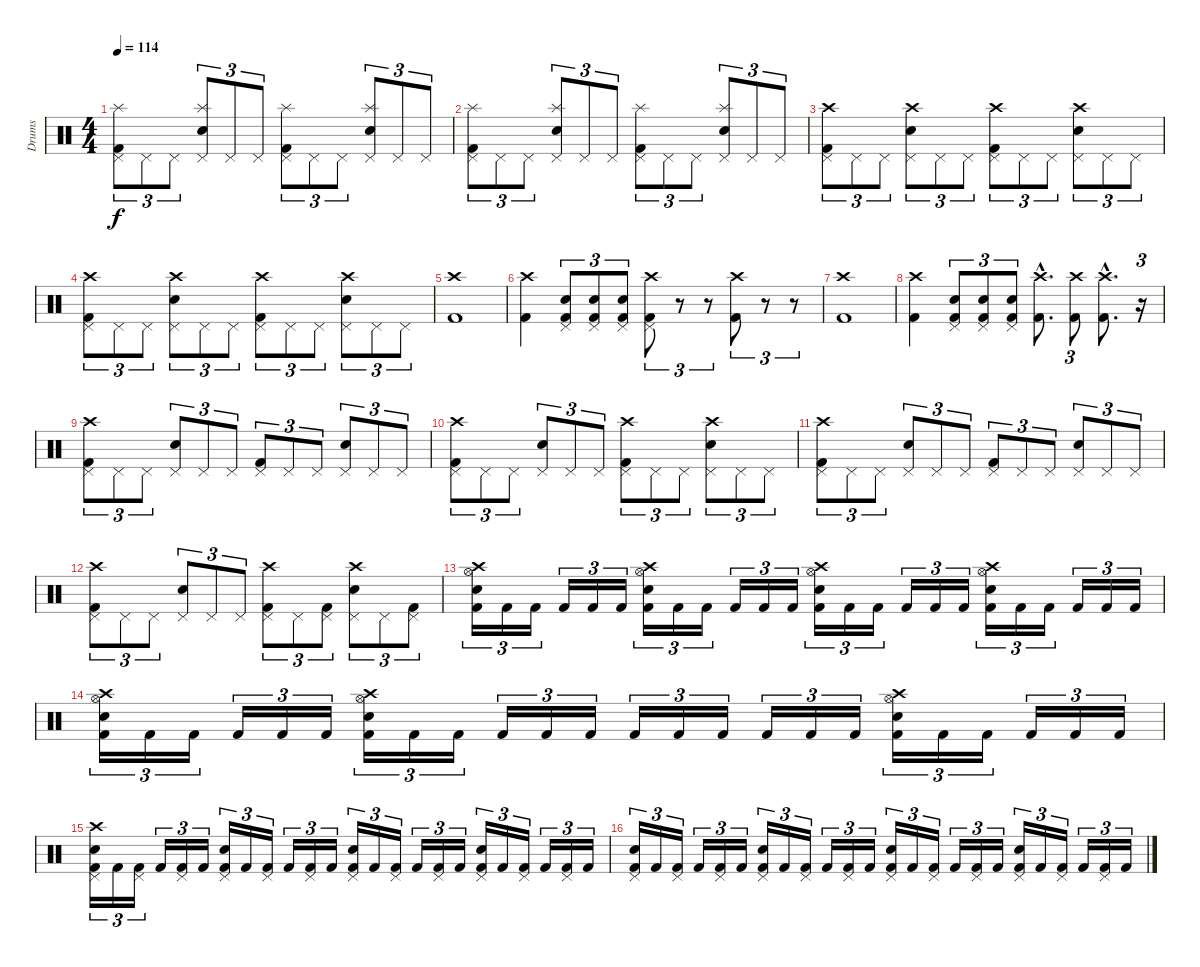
\track ("Drums" "Drums") {instrument percussion}
\staff {score}
\articulation defaults
\ts (4 4)
\tempo 114
\clef neutral
\ks c
("Pedal Hi-Hat (hit)" "Kick (hit) 2" "Splash (hit)").8{tu (3 2) dy f} "Pedal Hi-Hat (hit)".8{tu (3 2)} "Pedal Hi-Hat (hit)".8{tu (3 2)} ("Pedal Hi-Hat (hit)" "Electric Snare (hit)" "Splash (hit)").8{tu (3 2)} "Pedal Hi-Hat (hit)".8{tu (3 2)} "Pedal Hi-Hat (hit)".8{tu (3 2)} ("Pedal Hi-Hat (hit)" "Kick (hit) 2" "Splash (hit)").8{tu (3 2)} "Pedal Hi-Hat (hit)".8{tu (3 2)} "Pedal Hi-Hat (hit)".8{tu (3 2)} ("Pedal Hi-Hat (hit)" "Electric Snare (hit)" "Splash (hit)").8{tu (3 2)} "Pedal Hi-Hat (hit)".8{tu (3 2)} "Pedal Hi-Hat (hit)".8{tu (3 2)} |
("Pedal Hi-Hat (hit)" "Kick (hit) 2" "Splash (hit)").8{tu (3 2)} "Pedal Hi-Hat (hit)".8{tu (3 2)} "Pedal Hi-Hat (hit)".8{tu (3 2)} ("Pedal Hi-Hat (hit)" "Electric Snare (hit)" "Splash (hit)").8{tu (3 2)} "Pedal Hi-Hat (hit)".8{tu (3 2)} "Pedal Hi-Hat (hit)".8{tu (3 2)} ("Pedal Hi-Hat (hit)" "Kick (hit) 2" "Splash (hit)").8{tu (3 2)} "Pedal Hi-Hat (hit)".8{tu (3 2)} "Pedal Hi-Hat (hit)".8{tu (3 2)} ("Pedal Hi-Hat (hit)" "Electric Snare (hit)" "Splash (hit)").8{tu (3 2)} "Pedal Hi-Hat (hit)".8{tu (3 2)} "Pedal Hi-Hat (hit)".8{tu (3 2)} |
("Pedal Hi-Hat (hit)" "Kick (hit) 2" "Crash high (hit)").8{tu (3 2)} "Pedal Hi-Hat (hit)".8{tu (3 2)} "Pedal Hi-Hat (hit)".8{tu (3 2)} ("Pedal Hi-Hat (hit)" "Electric Snare (hit)" "Crash high (hit)").8{tu (3 2)} "Pedal Hi-Hat (hit)".8{tu (3 2)} "Pedal Hi-Hat (hit)".8{tu (3 2)} ("Pedal Hi-Hat (hit)" "Kick (hit) 2" "Crash high (hit)").8{tu (3 2)} "Pedal Hi-Hat (hit)".8{tu (3 2)} "Pedal Hi-Hat (hit)".8{tu (3 2)} ("Pedal Hi-Hat (hit)" "Electric Snare (hit)" "Crash high (hit)").8{tu (3 2)} "Pedal Hi-Hat (hit)".8{tu (3 2)} "Pedal Hi-Hat (hit)".8{tu (3 2)} |
("Pedal Hi-Hat (hit)" "Kick (hit) 2" "Crash high (hit)").8{tu (3 2)} "Pedal Hi-Hat (hit)".8{tu (3 2)} "Pedal Hi-Hat (hit)".8{tu (3 2)} ("Pedal Hi-Hat (hit)" "Electric Snare (hit)" "Crash high (hit)").8{tu (3 2)} "Pedal Hi-Hat (hit)".8{tu (3 2)} "Pedal Hi-Hat (hit)".8{tu (3 2)} ("Pedal Hi-Hat (hit)" "Kick (hit) 2" "Crash high (hit)").8{tu (3 2)} "Pedal Hi-Hat (hit)".8{tu (3 2)} "Pedal Hi-Hat (hit)".8{tu (3 2)} ("Pedal Hi-Hat (hit)" "Electric Snare (hit)" "Crash high (hit)").8{tu (3 2)} "Pedal Hi-Hat (hit)".8{tu (3 2)} "Pedal Hi-Hat (hit)".8{tu (3 2)} |
("Crash high (hit)" "Kick (hit) 2").1 |
("Kick (hit) 2" "Crash high (hit)").4 ("Pedal Hi-Hat (hit)" "Electric Snare (hit)" "Kick (hit) 2").8{tu (3 2)} ("Pedal Hi-Hat (hit)" "Electric Snare (hit)" "Kick (hit) 2").8{tu (3 2)} ("Pedal Hi-Hat (hit)" "Electric Snare (hit)" "Kick (hit) 2").8{tu (3 2)} ("Pedal Hi-Hat (hit)" "Crash high (hit)" "Kick (hit) 2").8{tu (3 2)} r.8{tu (3 2)} r.8{tu (3 2)} ("Crash high (hit)" "Kick (hit) 2").8{tu (3 2)} r.8{tu (3 2)} r.8{tu (3 2)} |
("Crash high (hit)" "Kick (hit) 2").1 |
("Crash high (hit)" "Kick (hit) 2").4 ("Pedal Hi-Hat (hit)" "Electric Snare (hit)" "Kick (hit) 2").8{tu (3 2)} ("Pedal Hi-Hat (hit)" "Electric Snare (hit)" "Kick (hit) 2").8{tu (3 2)} ("Pedal Hi-Hat (hit)" "Electric Snare (hit)" "Kick (hit) 2").8{tu (3 2)} ("Crash high (hit)"{hac} "Kick (hit) 2"{hac}).8{d} ("Crash high (hit)" "Kick (hit) 2").8{tu (3 2)} ("Crash high (hit)"{hac} "Kick (hit) 2"{hac}).8{d} r.16{tu (3 2)} |
("Pedal Hi-Hat (hit)" "Crash high (hit)" "Kick (hit) 2").8{tu (3 2)} "Pedal Hi-Hat (hit)".8{tu (3 2)} "Pedal Hi-Hat (hit)".8{tu (3 2)} ("Pedal Hi-Hat (hit)" "Electric Snare (hit)").8{tu (3 2)} "Pedal Hi-Hat (hit)".8{tu (3 2)} "Pedal Hi-Hat (hit)".8{tu (3 2)} ("Pedal Hi-Hat (hit)" "Kick (hit) 2").8{tu (3 2)} "Pedal Hi-Hat (hit)".8{tu (3 2)} "Pedal Hi-Hat (hit)".8{tu (3 2)} ("Pedal Hi-Hat (hit)" "Electric Snare (hit)").8{tu (3 2)} "Pedal Hi-Hat (hit)".8{tu (3 2)} "Pedal Hi-Hat (hit)".8{tu (3 2)} |
("Pedal Hi-Hat (hit)" "Crash high (hit)" "Kick (hit) 2").8{tu (3 2)} "Pedal Hi-Hat (hit)".8{tu (3 2)} "Pedal Hi-Hat (hit)".8{tu (3 2)} ("Pedal Hi-Hat (hit)" "Electric Snare (hit)").8{tu (3 2)} "Pedal Hi-Hat (hit)".8{tu (3 2)} "Pedal Hi-Hat (hit)".8{tu (3 2)} ("Pedal Hi-Hat (hit)" "Crash high (hit)" "Kick (hit) 2").8{tu (3 2)} "Pedal Hi-Hat (hit)".8{tu (3 2)} "Pedal Hi-Hat (hit)".8{tu (3 2)} ("Pedal Hi-Hat (hit)" "Electric Snare (hit)" "Crash high (hit)").8{tu (3 2)} "Pedal Hi-Hat (hit)".8{tu (3 2)} "Pedal Hi-Hat (hit)".8{tu (3 2)} |
("Pedal Hi-Hat (hit)" "Crash high (hit)" "Kick (hit) 2").8{tu (3 2)} "Pedal Hi-Hat (hit)".8{tu (3 2)} "Pedal Hi-Hat (hit)".8{tu (3 2)} ("Pedal Hi-Hat (hit)" "Electric Snare (hit)").8{tu (3 2)} "Pedal Hi-Hat (hit)".8{tu (3 2)} "Pedal Hi-Hat (hit)".8{tu (3 2)} ("Pedal Hi-Hat (hit)" "Kick (hit) 2").8{tu (3 2)} "Pedal Hi-Hat (hit)".8{tu (3 2)} "Pedal Hi-Hat (hit)".8{tu (3 2)} ("Pedal Hi-Hat (hit)" "Electric Snare (hit)").8{tu (3 2)} "Pedal Hi-Hat (hit)".8{tu (3 2)} "Pedal Hi-Hat (hit)".8{tu (3 2)} |
("Pedal Hi-Hat (hit)" "Crash high (hit)" "Kick (hit) 2").8{tu (3 2)} "Pedal Hi-Hat (hit)".8{tu (3 2)} "Pedal Hi-Hat (hit)".8{tu (3 2)} ("Pedal Hi-Hat (hit)" "Electric Snare (hit)").8{tu (3 2)} "Pedal Hi-Hat (hit)".8{tu (3 2)} "Pedal Hi-Hat (hit)".8{tu (3 2)} ("Pedal Hi-Hat (hit)" "Crash high (hit)" "Kick (hit) 2").8{tu (3 2)} "Pedal Hi-Hat (hit)".8{tu (3 2)} ("Pedal Hi-Hat (hit)" "Kick (hit) 2").8{tu (3 2)} ("Pedal Hi-Hat (hit)" "Electric Snare (hit)" "Crash high (hit)").8{tu (3 2)} "Pedal Hi-Hat (hit)".8{tu (3 2)} ("Pedal Hi-Hat (hit)" "Kick (hit) 2").8{tu (3 2)} |
("Hi-Hat (open)" "Electric Snare (hit)" "Crash high (hit)" "Kick (hit) 2").16{tu (3 2)} "Kick (hit) 2".16{tu (3 2)} "Kick (hit) 2".16{tu (3 2)} "Kick (hit) 2".16{tu (3 2)} "Kick (hit) 2".16{tu (3 2)} "Kick (hit) 2".16{tu (3 2)} ("Hi-Hat (open)" "Electric Snare (hit)" "Crash high (hit)" "Kick (hit) 2").16{tu (3 2)} "Kick (hit) 2".16{tu (3 2)} "Kick (hit) 2".16{tu (3 2)} "Kick (hit) 2".16{tu (3 2)} "Kick (hit) 2".16{tu (3 2)} "Kick (hit) 2".16{tu (3 2)} ("Hi-Hat (open)" "Electric Snare (hit)" "Crash high (hit)" "Kick (hit) 2").16{tu (3 2)} "Kick (hit) 2".16{tu (3 2)} "Kick (hit) 2".16{tu (3 2)} "Kick (hit) 2".16{tu (3 2)} "Kick (hit) 2".16{tu (3 2)} "Kick (hit) 2".16{tu (3 2)} ("Hi-Hat (open)" "Electric Snare (hit)" "Crash high (hit)" "Kick (hit) 2").16{tu (3 2)} "Kick (hit) 2".16{tu (3 2)} "Kick (hit) 2".16{tu (3 2)} "Kick (hit) 2".16{tu (3 2)} "Kick (hit) 2".16{tu (3 2)} "Kick (hit) 2".16{tu (3 2)} |
("Hi-Hat (open)" "Electric Snare (hit)" "Crash high (hit)" "Kick (hit) 2").16{tu (3 2)} "Kick (hit) 2".16{tu (3 2)} "Kick (hit) 2".16{tu (3 2)} "Kick (hit) 2".16{tu (3 2)} "Kick (hit) 2".16{tu (3 2)} "Kick (hit) 2".16{tu (3 2)} ("Hi-Hat (open)" "Electric Snare (hit)" "Crash high (hit)" "Kick (hit) 2").16{tu (3 2)} "Kick (hit) 2".16{tu (3 2)} "Kick (hit) 2".16{tu (3 2)} "Kick (hit) 2".16{tu (3 2)} "Kick (hit) 2".16{tu (3 2)} "Kick (hit) 2".16{tu (3 2)} "Kick (hit) 2".16{tu (3 2)} "Kick (hit) 2".16{tu (3 2)} "Kick (hit) 2".16{tu (3 2)} "Kick (hit) 2".16{tu (3 2)} "Kick (hit) 2".16{tu (3 2)} "Kick (hit) 2".16{tu (3 2)} ("Hi-Hat (open)" "Electric Snare (hit)" "Crash high (hit)" "Kick (hit) 2").16{tu (3 2)} "Kick (hit) 2".16{tu (3 2)} "Kick (hit) 2".16{tu (3 2)} "Kick (hit) 2".16{tu (3 2)} "Kick (hit) 2".16{tu (3 2)} "Kick (hit) 2".16{tu (3 2)} |
("Pedal Hi-Hat (hit)" "Electric Snare (hit)" "Crash high (hit)" "Kick (hit) 2").16{tu (3 2)} "Kick (hit) 2".16{tu (3 2)} ("Pedal Hi-Hat (hit)" "Kick (hit) 2").16{tu (3 2)} "Kick (hit) 2".16{tu (3 2)} ("Pedal Hi-Hat (hit)" "Kick (hit) 2").16{tu (3 2)} "Kick (hit) 2".16{tu (3 2)} ("Pedal Hi-Hat (hit)" "Electric Snare (hit)" "Kick (hit) 2").16{tu (3 2)} "Kick (hit) 2".16{tu (3 2)} ("Pedal Hi-Hat (hit)" "Kick (hit) 2").16{tu (3 2)} "Kick (hit) 2".16{tu (3 2)} ("Pedal Hi-Hat (hit)" "Kick (hit) 2").16{tu (3 2)} "Kick (hit) 2".16{tu (3 2)} ("Pedal Hi-Hat (hit)" "Electric Snare (hit)" "Kick (hit) 2").16{tu (3 2)} "Kick (hit) 2".16{tu (3 2)} ("Pedal Hi-Hat (hit)" "Kick (hit) 2").16{tu (3 2)} "Kick (hit) 2".16{tu (3 2)} ("Pedal Hi-Hat (hit)" "Kick (hit) 2").16{tu (3 2)} "Kick (hit) 2".16{tu (3 2)} ("Pedal Hi-Hat (hit)" "Electric Snare (hit)" "Kick (hit) 2").16{tu (3 2)} "Kick (hit) 2".16{tu (3 2)} ("Pedal Hi-Hat (hit)" "Kick (hit) 2").16{tu (3 2)} "Kick (hit) 2".16{tu (3 2)} ("Pedal Hi-Hat (hit)" "Kick (hit) 2").16{tu (3 2)} "Kick (hit) 2".16{tu (3 2)} |
("Pedal Hi-Hat (hit)" "Electric Snare (hit)" "Kick (hit) 2").16{tu (3 2)} "Kick (hit) 2".16{tu (3 2)} ("Pedal Hi-Hat (hit)" "Kick (hit) 2").16{tu (3 2)} "Kick (hit) 2".16{tu (3 2)} ("Pedal Hi-Hat (hit)" "Kick (hit) 2").16{tu (3 2)} "Kick (hit) 2".16{tu (3 2)} ("Pedal Hi-Hat (hit)" "Electric Snare (hit)" "Kick (hit) 2").16{tu (3 2)} "Kick (hit) 2".16{tu (3 2)} ("Pedal Hi-Hat (hit)" "Kick (hit) 2").16{tu (3 2)} "Kick (hit) 2".16{tu (3 2)} ("Pedal Hi-Hat (hit)" "Kick (hit) 2").16{tu (3 2)} "Kick (hit) 2".16{tu (3 2)} ("Pedal Hi-Hat (hit)" "Electric Snare (hit)" "Kick (hit) 2").16{tu (3 2)} "Kick (hit) 2".16{tu (3 2)} ("Pedal Hi-Hat (hit)" "Kick (hit) 2").16{tu (3 2)} "Kick (hit) 2".16{tu (3 2)} ("Pedal Hi-Hat (hit)" "Kick (hit) 2").16{tu (3 2)} "Kick (hit) 2".16{tu (3 2)} ("Pedal Hi-Hat (hit)" "Electric Snare (hit)" "Kick (hit) 2").16{tu (3 2)} "Kick (hit) 2".16{tu (3 2)} ("Pedal Hi-Hat (hit)" "Kick (hit) 2").16{tu (3 2)} "Kick (hit) 2".16{tu (3 2)} ("Pedal Hi-Hat (hit)" "Kick (hit) 2").16{tu (3 2)} "Kick (hit) 2".16{tu (3 2)}
